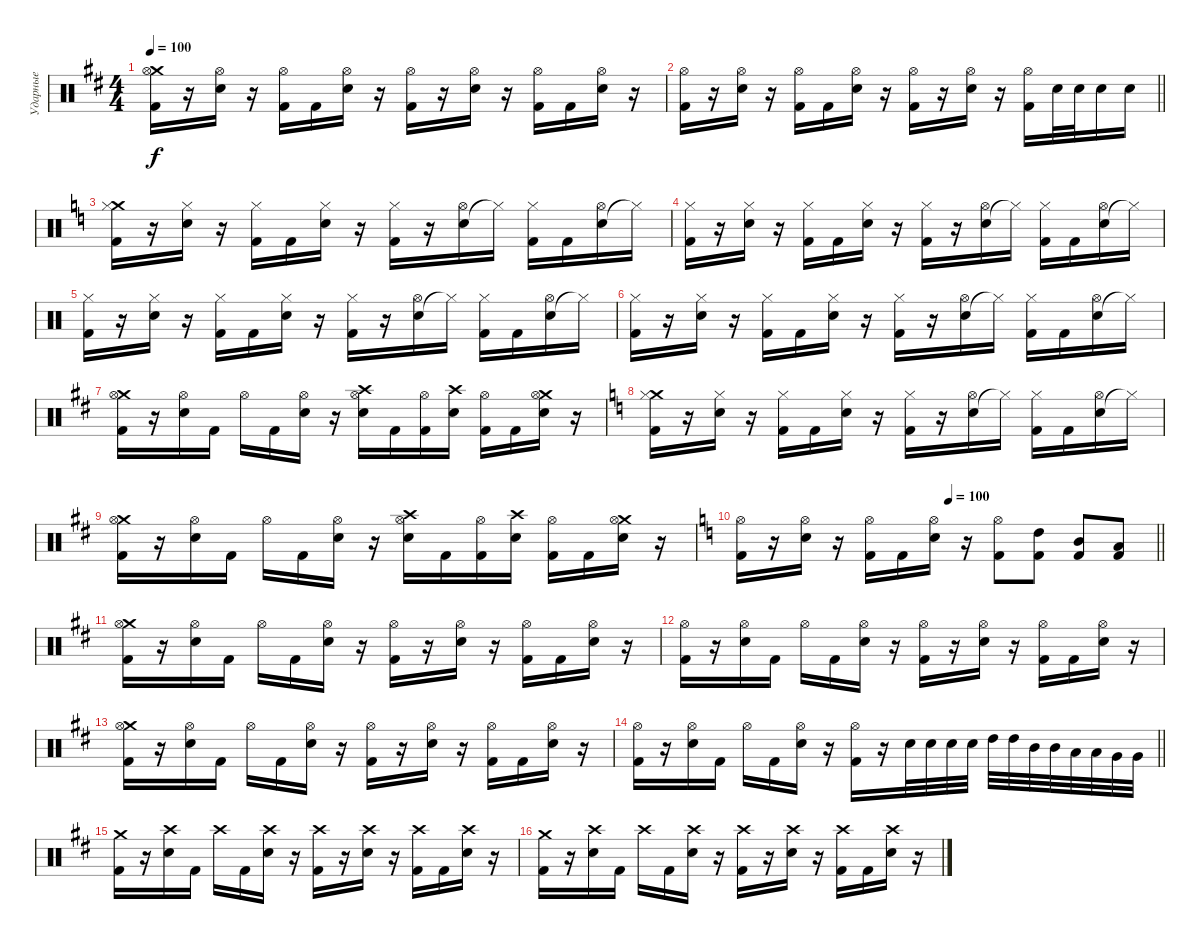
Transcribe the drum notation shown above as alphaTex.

\track ("Ударные" "Ударные") {instrument percussion}
\staff {score}
\articulation defaults
\ts (4 4)
\tempo 100
\clef neutral
\ks d
("Crash medium (hit)" "Kick (hit) 2" "Hi-Hat (open)").16{dy f} r.16 ("Electric Snare (hit)" "Hi-Hat (open)").16 r.16 ("Kick (hit) 2" "Hi-Hat (open)").16 "Kick (hit) 2".16 ("Electric Snare (hit)" "Hi-Hat (open)").16 r.16 ("Kick (hit) 2" "Hi-Hat (open)").16 r.16 ("Electric Snare (hit)" "Hi-Hat (open)").16 r.16 ("Kick (hit) 2" "Hi-Hat (open)").16 "Kick (hit) 2".16 ("Electric Snare (hit)" "Hi-Hat (open)").16 r.16 |
\barLineRight lightlight
("Kick (hit) 2" "Hi-Hat (open)").16 r.16 ("Electric Snare (hit)" "Hi-Hat (open)").16 r.16 ("Kick (hit) 2" "Hi-Hat (open)").16 "Kick (hit) 2".16 ("Electric Snare (hit)" "Hi-Hat (open)").16 r.16 ("Kick (hit) 2" "Hi-Hat (open)").16 r.16 ("Electric Snare (hit)" "Hi-Hat (open)").16 r.16 ("Kick (hit) 2" "Hi-Hat (open)").16 "Electric Snare (hit)".32 "Electric Snare (hit)".32 "Electric Snare (hit)".16 "Electric Snare (hit)".16 |
\section ("" "")
\ks c
("Crash medium (hit)" "Kick (hit) 2" "Hi-Hat (closed)").16 r.16 ("Electric Snare (hit)" "Hi-Hat (closed)").16 r.16 ("Kick (hit) 2" "Hi-Hat (closed)").16 "Kick (hit) 2".16 ("Electric Snare (hit)" "Hi-Hat (closed)").16 r.16 ("Kick (hit) 2" "Hi-Hat (closed)").16 r.16 ("Electric Snare (hit)" "Hi-Hat (open)").16 "Hi-Hat (closed)"{t}.16 ("Kick (hit) 2" "Hi-Hat (closed)").16 "Kick (hit) 2".16 ("Electric Snare (hit)" "Hi-Hat (open)").16 "Hi-Hat (closed)"{t}.16 |
("Kick (hit) 2" "Hi-Hat (closed)").16 r.16 ("Electric Snare (hit)" "Hi-Hat (closed)").16 r.16 ("Kick (hit) 2" "Hi-Hat (closed)").16 "Kick (hit) 2".16 ("Electric Snare (hit)" "Hi-Hat (closed)").16 r.16 ("Kick (hit) 2" "Hi-Hat (closed)").16 r.16 ("Electric Snare (hit)" "Hi-Hat (open)").16 "Hi-Hat (closed)"{t}.16 ("Kick (hit) 2" "Hi-Hat (closed)").16 "Kick (hit) 2".16 ("Electric Snare (hit)" "Hi-Hat (open)").16 "Hi-Hat (closed)"{t}.16 |
("Kick (hit) 2" "Hi-Hat (closed)").16 r.16 ("Electric Snare (hit)" "Hi-Hat (closed)").16 r.16 ("Kick (hit) 2" "Hi-Hat (closed)").16 "Kick (hit) 2".16 ("Electric Snare (hit)" "Hi-Hat (closed)").16 r.16 ("Kick (hit) 2" "Hi-Hat (closed)").16 r.16 ("Electric Snare (hit)" "Hi-Hat (open)").16 "Hi-Hat (closed)"{t}.16 ("Kick (hit) 2" "Hi-Hat (closed)").16 "Kick (hit) 2".16 ("Electric Snare (hit)" "Hi-Hat (open)").16 "Hi-Hat (closed)"{t}.16 |
("Kick (hit) 2" "Hi-Hat (closed)").16 r.16 ("Electric Snare (hit)" "Hi-Hat (closed)").16 r.16 ("Kick (hit) 2" "Hi-Hat (closed)").16 "Kick (hit) 2".16 ("Electric Snare (hit)" "Hi-Hat (closed)").16 r.16 ("Kick (hit) 2" "Hi-Hat (closed)").16 r.16 ("Electric Snare (hit)" "Hi-Hat (open)").16 "Hi-Hat (closed)"{t}.16 ("Kick (hit) 2" "Hi-Hat (closed)").16 "Kick (hit) 2".16 ("Electric Snare (hit)" "Hi-Hat (open)").16 "Hi-Hat (closed)"{t}.16 |
\ks d
("Crash medium (hit)" "Kick (hit) 2" "Hi-Hat (open)").16 r.16 ("Electric Snare (hit)" "Hi-Hat (open)").16 "Kick (hit) 2".16 "Hi-Hat (open)".16 "Kick (hit) 2".16 ("Electric Snare (hit)" "Hi-Hat (open)").16 r.16 ("Crash high (hit)" "Electric Snare (hit)" "Hi-Hat (open)").16 "Kick (hit) 2".16 ("Kick (hit) 2" "Hi-Hat (open)").16 ("Crash high (hit)" "Electric Snare (hit)").16 ("Kick (hit) 2" "Hi-Hat (open)").16 "Kick (hit) 2".16 ("Crash medium (hit)" "Electric Snare (hit)" "Hi-Hat (open)").16 r.16 |
\ks c
("Crash medium (hit)" "Kick (hit) 2" "Hi-Hat (closed)").16 r.16 ("Electric Snare (hit)" "Hi-Hat (closed)").16 r.16 ("Kick (hit) 2" "Hi-Hat (closed)").16 "Kick (hit) 2".16 ("Electric Snare (hit)" "Hi-Hat (closed)").16 r.16 ("Kick (hit) 2" "Hi-Hat (closed)").16 r.16 ("Electric Snare (hit)" "Hi-Hat (open)").16 "Hi-Hat (closed)"{t}.16 ("Kick (hit) 2" "Hi-Hat (closed)").16 "Kick (hit) 2".16 ("Electric Snare (hit)" "Hi-Hat (open)").16 "Hi-Hat (closed)"{t}.16 |
\ks d
("Crash medium (hit)" "Kick (hit) 2" "Hi-Hat (open)").16 r.16 ("Electric Snare (hit)" "Hi-Hat (open)").16 "Kick (hit) 2".16 "Hi-Hat (open)".16 "Kick (hit) 2".16 ("Electric Snare (hit)" "Hi-Hat (open)").16 r.16 ("Crash high (hit)" "Electric Snare (hit)" "Hi-Hat (open)").16 "Kick (hit) 2".16 ("Kick (hit) 2" "Hi-Hat (open)").16 ("Crash high (hit)" "Electric Snare (hit)").16 ("Kick (hit) 2" "Hi-Hat (open)").16 "Kick (hit) 2".16 ("Crash medium (hit)" "Electric Snare (hit)" "Hi-Hat (open)").16 r.16 |
\tempo (100 0.5)
\barLineRight lightlight
\ks c
("Kick (hit) 2" "Hi-Hat (open)").16 r.16 ("Electric Snare (hit)" "Hi-Hat (open)").16 r.16 ("Kick (hit) 2" "Hi-Hat (open)").16 "Kick (hit) 2".16 ("Electric Snare (hit)" "Hi-Hat (open)").16 r.16 ("Hi-Hat (open)" "Kick (hit) 2").8 ("Kick (hit) 2" "High Tom (hit)").8 ("Kick (hit) 2" "Mid Tom (hit)").8 ("Kick (hit) 2" "Low Tom (hit)").8 |
\section ("" "")
\ks d
("Crash medium (hit)" "Kick (hit) 2" "Hi-Hat (open)").16 r.16 ("Electric Snare (hit)" "Hi-Hat (open)").16 "Kick (hit) 2".16 "Hi-Hat (open)".16 "Kick (hit) 2".16 ("Electric Snare (hit)" "Hi-Hat (open)").16 r.16 ("Kick (hit) 2" "Hi-Hat (open)").16 r.16 ("Electric Snare (hit)" "Hi-Hat (open)").16 r.16 ("Kick (hit) 2" "Hi-Hat (open)").16 "Kick (hit) 2".16 ("Electric Snare (hit)" "Hi-Hat (open)").16 r.16 |
("Kick (hit) 2" "Hi-Hat (open)").16 r.16 ("Electric Snare (hit)" "Hi-Hat (open)").16 "Kick (hit) 2".16 "Hi-Hat (open)".16 "Kick (hit) 2".16 ("Electric Snare (hit)" "Hi-Hat (open)").16 r.16 ("Kick (hit) 2" "Hi-Hat (open)").16 r.16 ("Electric Snare (hit)" "Hi-Hat (open)").16 r.16 ("Kick (hit) 2" "Hi-Hat (open)").16 "Kick (hit) 2".16 ("Electric Snare (hit)" "Hi-Hat (open)").16 r.16 |
("Crash medium (hit)" "Kick (hit) 2" "Hi-Hat (open)").16 r.16 ("Electric Snare (hit)" "Hi-Hat (open)").16 "Kick (hit) 2".16 "Hi-Hat (open)".16 "Kick (hit) 2".16 ("Electric Snare (hit)" "Hi-Hat (open)").16 r.16 ("Kick (hit) 2" "Hi-Hat (open)").16 r.16 ("Electric Snare (hit)" "Hi-Hat (open)").16 r.16 ("Kick (hit) 2" "Hi-Hat (open)").16 "Kick (hit) 2".16 ("Electric Snare (hit)" "Hi-Hat (open)").16 r.16 |
\barLineRight lightlight
("Kick (hit) 2" "Hi-Hat (open)").16 r.16 ("Electric Snare (hit)" "Hi-Hat (open)").16 "Kick (hit) 2".16 "Hi-Hat (open)".16 "Kick (hit) 2".16 ("Electric Snare (hit)" "Hi-Hat (open)").16 r.16 ("Kick (hit) 2" "Hi-Hat (open)").16 r.16 "Electric Snare (hit)".32 "Electric Snare (hit)".32 "Electric Snare (hit)".32 "Electric Snare (hit)".32 "High Tom (hit)".32 "High Tom (hit)".32 "Mid Tom (hit)".32 "Mid Tom (hit)".32 "Low Tom (hit)".32 "Low Tom (hit)".32 "Very Low Tom (hit)".32 "Very Low Tom (hit)".32 |
("Crash medium (hit)" "Kick (hit) 2").16 r.16 ("Electric Snare (hit)" "Crash high (hit)").16 "Kick (hit) 2".16 "Crash high (hit)".16 "Kick (hit) 2".16 ("Electric Snare (hit)" "Crash high (hit)").16 r.16 ("Kick (hit) 2" "Crash high (hit)").16 r.16 ("Electric Snare (hit)" "Crash high (hit)").16 r.16 ("Kick (hit) 2" "Crash high (hit)").16 "Kick (hit) 2".16 ("Electric Snare (hit)" "Crash high (hit)").16 r.16 |
("Crash medium (hit)" "Kick (hit) 2").16 r.16 ("Electric Snare (hit)" "Crash high (hit)").16 "Kick (hit) 2".16 "Crash high (hit)".16 "Kick (hit) 2".16 ("Electric Snare (hit)" "Crash high (hit)").16 r.16 ("Kick (hit) 2" "Crash high (hit)").16 r.16 ("Electric Snare (hit)" "Crash high (hit)").16 r.16 ("Kick (hit) 2" "Crash high (hit)").16 "Kick (hit) 2".16 ("Electric Snare (hit)" "Crash high (hit)").16 r.16
